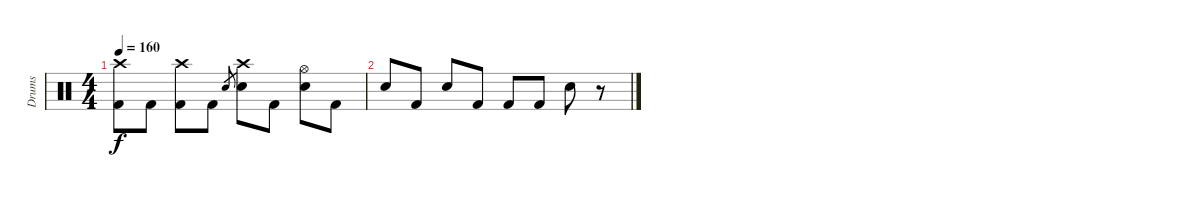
\track ("Drums" "Drums") {instrument percussion}
\staff {score}
\articulation defaults
\ts (4 4)
\tempo 160
\clef neutral
\ks c
("Crash high (hit)" "Kick (hit) 2").8{dy f} "Kick (hit) 2".8 ("Crash high (hit)" "Kick (hit) 2").8 "Kick (hit) 2".8 "Snare (hit) 2".8{gr} ("Crash high (hit)" "Snare (hit) 2").8 "Kick (hit) 2".8 ("Hi-Hat (open)" "Snare (hit) 2").8 "Kick (hit) 2".8 |
"Snare (hit) 2".8 "Kick (hit) 2".8 "Snare (hit) 2".8 "Kick (hit) 2".8 "Kick (hit) 2".8 "Kick (hit) 2".8 "Snare (hit) 2".8 r.8
